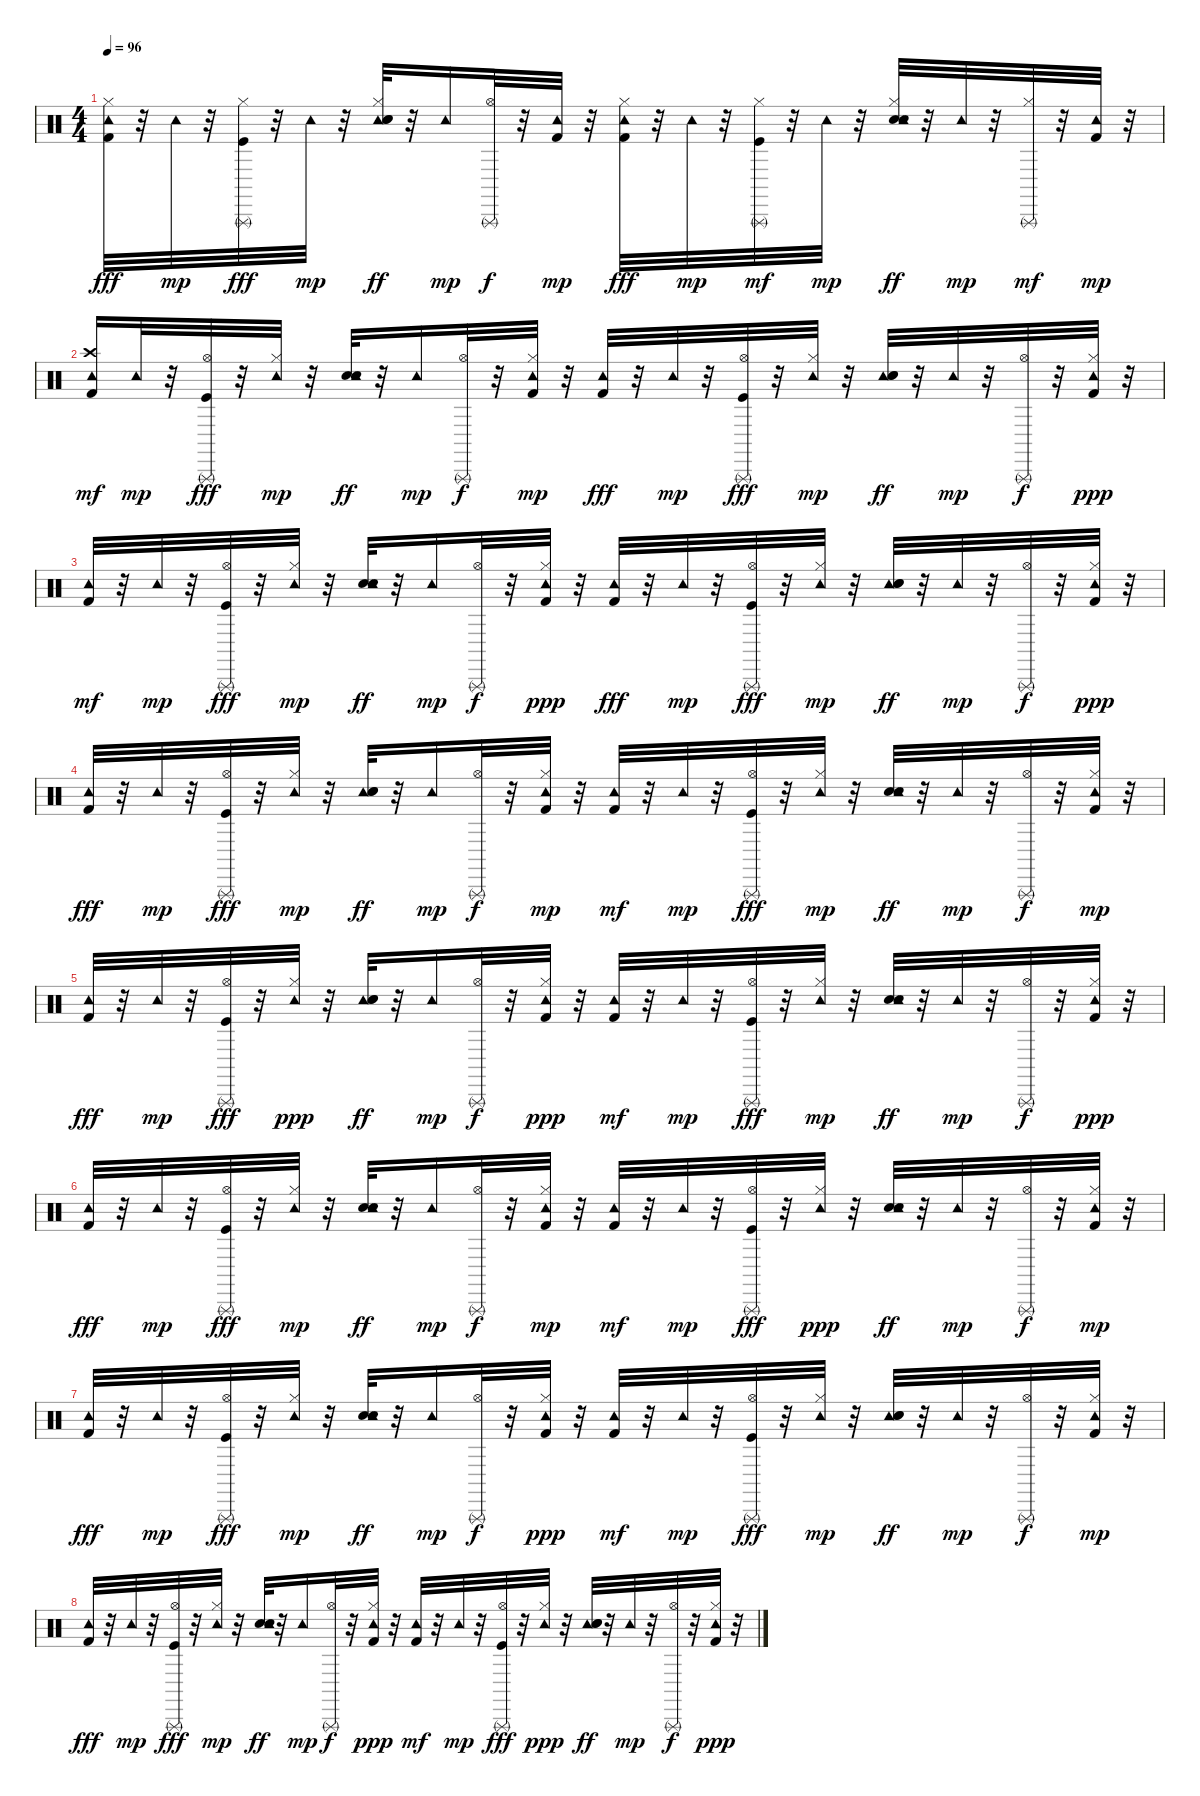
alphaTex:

\track "" {instrument percussion}
\staff {score}
\articulation defaults
\ts (4 4)
\tempo 96
\clef neutral
\ks c
("Tambourine (hit)" "Kick (hit) 2" "Hi-Hat (closed)").32{dy fff} r.32 "Tambourine (hit)".32{dy mp} r.32 ("Triangle (rnute)" "Hi-Hat (closed)" "Kick (hit)").32{dy fff} r.32 "Tambourine (hit)".32{dy mp} r.32 ("Tambourine (hit)" "Hi-Hat (closed)" "Snare (hit) 2" "Hand Clap (hit)").32{dy ff} r.32 "Tambourine (hit)".16{dy mp} ("Triangle (rnute)" "Hi-Hat (open)").32{dy f} r.32 ("Kick (hit) 2" "Tambourine (hit)").32{dy mp} r.32 ("Tambourine (hit)" "Kick (hit) 2" "Hi-Hat (closed)").32{dy fff} r.32 "Tambourine (hit)".32{dy mp} r.32 ("Triangle (rnute)" "Kick (hit)" "Hi-Hat (closed)").32{dy mf} r.32 "Tambourine (hit)".32{dy mp} r.32 ("Snare (hit) 2" "Hi-Hat (closed)" "Tambourine (hit)" "Hand Clap (hit)").32{dy ff} r.32 "Tambourine (hit)".32{dy mp} r.32 ("Hi-Hat (closed)" "Triangle (rnute)").32{dy mf} r.32 ("Tambourine (hit)" "Kick (hit) 2").32{dy mp} r.32 |
("Kick (hit) 2" "Crash high (hit)" "Tambourine (hit)").16{dy mf} "Tambourine (hit)".32{dy mp} r.32 ("Kick (hit)" "Triangle (rnute)" "Hi-Hat (open)").32{dy fff} r.32 ("Hi-Hat (closed)" "Tambourine (hit)").32{dy mp} r.32 ("Electric Snare (hit)" "Tambourine (hit)" "Hand Clap (hit)").32{dy ff} r.32 "Tambourine (hit)".16{dy mp} ("Triangle (rnute)" "Hi-Hat (open)").32{dy f} r.32 ("Hi-Hat (closed)" "Kick (hit) 2" "Tambourine (hit)").32{dy mp} r.32 ("Tambourine (hit)" "Kick (hit) 2").32{dy fff} r.32 "Tambourine (hit)".32{dy mp} r.32 ("Hi-Hat (open)" "Triangle (rnute)" "Kick (hit)").32{dy fff} r.32 ("Hi-Hat (closed)" "Tambourine (hit)").32{dy mp} r.32 ("Tambourine (hit)" "Electric Snare (hit)" "Hand Clap (hit)").32{dy ff} r.32 "Tambourine (hit)".32{dy mp} r.32 ("Triangle (rnute)" "Hi-Hat (open)").32{dy f} r.32 ("Tambourine (hit)" "Hi-Hat (closed)" "Kick (hit) 2").32{dy ppp} r.32 |
("Kick (hit) 2" "Tambourine (hit)").32{dy mf} r.32 "Tambourine (hit)".32{dy mp} r.32 ("Hi-Hat (open)" "Kick (hit)" "Triangle (rnute)").32{dy fff} r.32 ("Hi-Hat (closed)" "Tambourine (hit)").32{dy mp} r.32 ("Electric Snare (hit)" "Tambourine (hit)" "Hand Clap (hit)").32{dy ff} r.32 "Tambourine (hit)".16{dy mp} ("Triangle (rnute)" "Hi-Hat (open)").32{dy f} r.32 ("Tambourine (hit)" "Hi-Hat (closed)" "Kick (hit) 2").32{dy ppp} r.32 ("Tambourine (hit)" "Kick (hit) 2").32{dy fff} r.32 "Tambourine (hit)".32{dy mp} r.32 ("Triangle (rnute)" "Kick (hit)" "Hi-Hat (open)").32{dy fff} r.32 ("Hi-Hat (closed)" "Tambourine (hit)").32{dy mp} r.32 ("Tambourine (hit)" "Electric Snare (hit)" "Hand Clap (hit)").32{dy ff} r.32 "Tambourine (hit)".32{dy mp} r.32 ("Triangle (rnute)" "Hi-Hat (open)").32{dy f} r.32 ("Tambourine (hit)" "Hi-Hat (closed)" "Kick (hit) 2").32{dy ppp} r.32 |
("Tambourine (hit)" "Kick (hit) 2").32{dy fff} r.32 "Tambourine (hit)".32{dy mp} r.32 ("Triangle (rnute)" "Kick (hit)" "Hi-Hat (open)").32{dy fff} r.32 ("Hi-Hat (closed)" "Tambourine (hit)").32{dy mp} r.32 ("Tambourine (hit)" "Electric Snare (hit)" "Hand Clap (hit)").32{dy ff} r.32 "Tambourine (hit)".16{dy mp} ("Triangle (rnute)" "Hi-Hat (open)").32{dy f} r.32 ("Hi-Hat (closed)" "Tambourine (hit)" "Kick (hit) 2").32{dy mp} r.32 ("Kick (hit) 2" "Tambourine (hit)").32{dy mf} r.32 "Tambourine (hit)".32{dy mp} r.32 ("Triangle (rnute)" "Kick (hit)" "Hi-Hat (open)").32{dy fff} r.32 ("Hi-Hat (closed)" "Tambourine (hit)").32{dy mp} r.32 ("Electric Snare (hit)" "Tambourine (hit)" "Hand Clap (hit)").32{dy ff} r.32 "Tambourine (hit)".32{dy mp} r.32 ("Triangle (rnute)" "Hi-Hat (open)").32{dy f} r.32 ("Hi-Hat (closed)" "Tambourine (hit)" "Kick (hit) 2").32{dy mp} r.32 |
("Tambourine (hit)" "Kick (hit) 2").32{dy fff} r.32 "Tambourine (hit)".32{dy mp} r.32 ("Hi-Hat (open)" "Kick (hit)" "Triangle (rnute)").32{dy fff} r.32 ("Tambourine (hit)" "Hi-Hat (closed)").32{dy ppp} r.32 ("Tambourine (hit)" "Electric Snare (hit)" "Hand Clap (hit)").32{dy ff} r.32 "Tambourine (hit)".16{dy mp} ("Triangle (rnute)" "Hi-Hat (open)").32{dy f} r.32 ("Tambourine (hit)" "Kick (hit) 2" "Hi-Hat (closed)").32{dy ppp} r.32 ("Kick (hit) 2" "Tambourine (hit)").32{dy mf} r.32 "Tambourine (hit)".32{dy mp} r.32 ("Kick (hit)" "Hi-Hat (open)" "Triangle (rnute)").32{dy fff} r.32 ("Hi-Hat (closed)" "Tambourine (hit)").32{dy mp} r.32 ("Electric Snare (hit)" "Tambourine (hit)" "Hand Clap (hit)").32{dy ff} r.32 "Tambourine (hit)".32{dy mp} r.32 ("Triangle (rnute)" "Hi-Hat (open)").32{dy f} r.32 ("Tambourine (hit)" "Kick (hit) 2" "Hi-Hat (closed)").32{dy ppp} r.32 |
("Tambourine (hit)" "Kick (hit) 2").32{dy fff} r.32 "Tambourine (hit)".32{dy mp} r.32 ("Triangle (rnute)" "Hi-Hat (open)" "Kick (hit)").32{dy fff} r.32 ("Hi-Hat (closed)" "Tambourine (hit)").32{dy mp} r.32 ("Electric Snare (hit)" "Tambourine (hit)" "Hand Clap (hit)").32{dy ff} r.32 "Tambourine (hit)".16{dy mp} ("Hi-Hat (open)" "Triangle (rnute)").32{dy f} r.32 ("Hi-Hat (closed)" "Tambourine (hit)" "Kick (hit) 2").32{dy mp} r.32 ("Kick (hit) 2" "Tambourine (hit)").32{dy mf} r.32 "Tambourine (hit)".32{dy mp} r.32 ("Kick (hit)" "Triangle (rnute)" "Hi-Hat (open)").32{dy fff} r.32 ("Tambourine (hit)" "Hi-Hat (closed)").32{dy ppp} r.32 ("Electric Snare (hit)" "Tambourine (hit)" "Hand Clap (hit)").32{dy ff} r.32 "Tambourine (hit)".32{dy mp} r.32 ("Hi-Hat (open)" "Triangle (rnute)").32{dy f} r.32 ("Hi-Hat (closed)" "Tambourine (hit)" "Kick (hit) 2").32{dy mp} r.32 |
("Tambourine (hit)" "Kick (hit) 2").32{dy fff} r.32 "Tambourine (hit)".32{dy mp} r.32 ("Triangle (rnute)" "Kick (hit)" "Hi-Hat (open)").32{dy fff} r.32 ("Hi-Hat (closed)" "Tambourine (hit)").32{dy mp} r.32 ("Electric Snare (hit)" "Tambourine (hit)" "Hand Clap (hit)").32{dy ff} r.32 "Tambourine (hit)".16{dy mp} ("Triangle (rnute)" "Hi-Hat (open)").32{dy f} r.32 ("Tambourine (hit)" "Kick (hit) 2" "Hi-Hat (closed)").32{dy ppp} r.32 ("Kick (hit) 2" "Tambourine (hit)").32{dy mf} r.32 "Tambourine (hit)".32{dy mp} r.32 ("Kick (hit)" "Hi-Hat (open)" "Triangle (rnute)").32{dy fff} r.32 ("Hi-Hat (closed)" "Tambourine (hit)").32{dy mp} r.32 ("Tambourine (hit)" "Electric Snare (hit)" "Hand Clap (hit)").32{dy ff} r.32 "Tambourine (hit)".32{dy mp} r.32 ("Hi-Hat (open)" "Triangle (rnute)").32{dy f} r.32 ("Kick (hit) 2" "Hi-Hat (closed)" "Tambourine (hit)").32{dy mp} r.32 |
("Tambourine (hit)" "Kick (hit) 2").32{dy fff} r.32 "Tambourine (hit)".32{dy mp} r.32 ("Kick (hit)" "Triangle (rnute)" "Hi-Hat (open)").32{dy fff} r.32 ("Hi-Hat (closed)" "Tambourine (hit)").32{dy mp} r.32 ("Electric Snare (hit)" "Tambourine (hit)" "Hand Clap (hit)").32{dy ff} r.32 "Tambourine (hit)".16{dy mp} ("Hi-Hat (open)" "Triangle (rnute)").32{dy f} r.32 ("Tambourine (hit)" "Kick (hit) 2" "Hi-Hat (closed)").32{dy ppp} r.32 ("Kick (hit) 2" "Tambourine (hit)").32{dy mf} r.32 "Tambourine (hit)".32{dy mp} r.32 ("Triangle (rnute)" "Kick (hit)" "Hi-Hat (open)").32{dy fff} r.32 ("Tambourine (hit)" "Hi-Hat (closed)").32{dy ppp} r.32 ("Tambourine (hit)" "Electric Snare (hit)" "Hand Clap (hit)").32{dy ff} r.32 "Tambourine (hit)".32{dy mp} r.32 ("Triangle (rnute)" "Hi-Hat (open)").32{dy f} r.32 ("Tambourine (hit)" "Hi-Hat (closed)" "Kick (hit) 2").32{dy ppp} r.32
